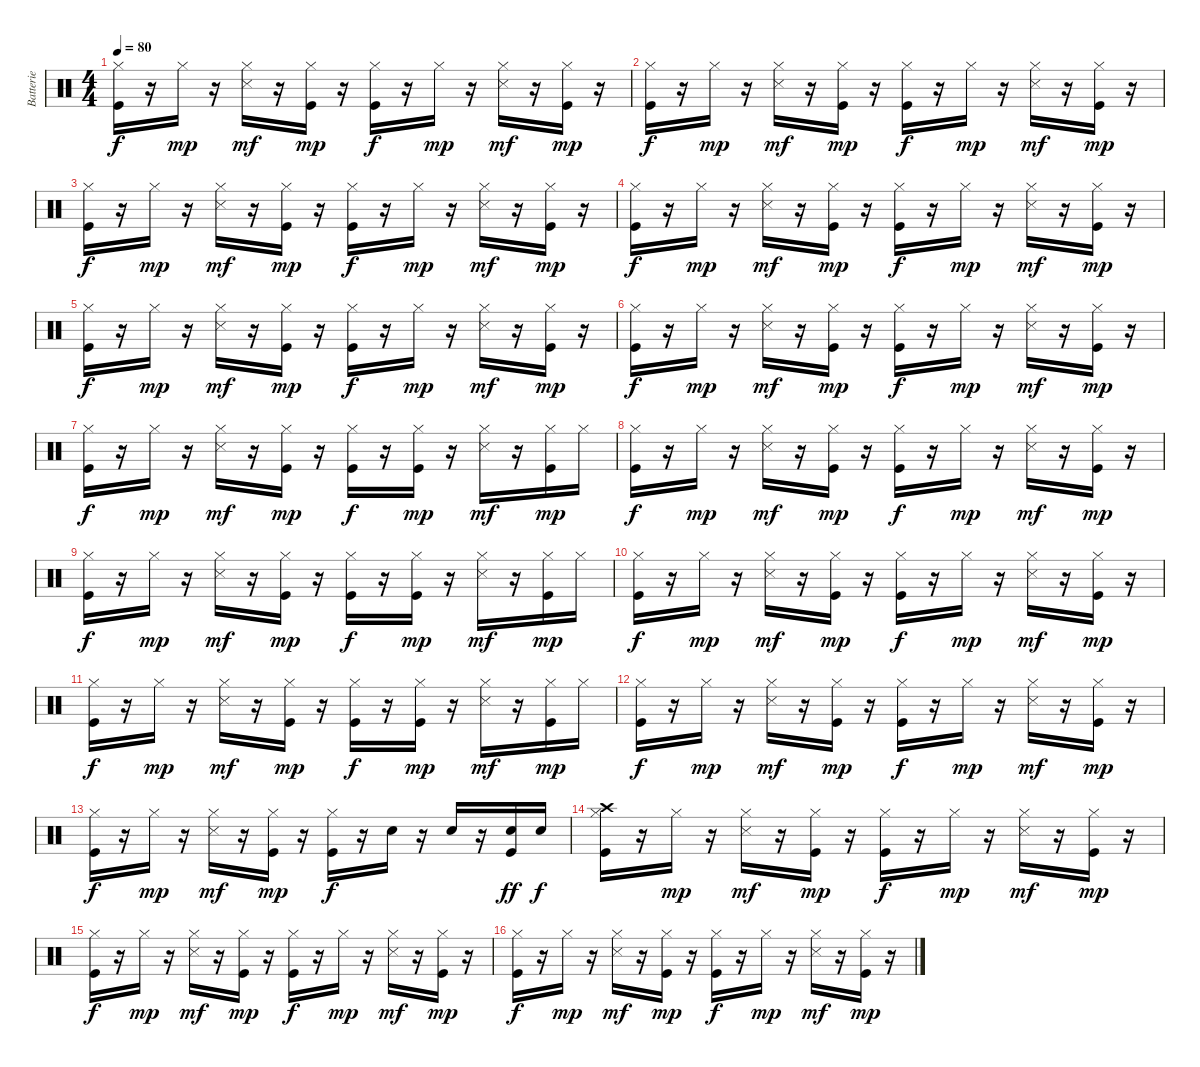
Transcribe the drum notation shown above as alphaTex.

\track ("Batterie" "Batterie") {instrument percussion}
\staff {score}
\articulation defaults
\ts (4 4)
\tempo 80
\clef neutral
\ks c
("Kick (hit)" "Hi-Hat (closed)").16{dy f} r.16 "Hi-Hat (closed)".16{dy mp} r.16 ("Hi-Hat (closed)" "Snare (side stick) 3").16{dy mf} r.16 ("Kick (hit)" "Hi-Hat (closed)").16{dy mp} r.16 ("Kick (hit)" "Hi-Hat (closed)").16{dy f} r.16 "Hi-Hat (closed)".16{dy mp} r.16 ("Hi-Hat (closed)" "Snare (side stick) 3").16{dy mf} r.16 ("Kick (hit)" "Hi-Hat (closed)").16{dy mp} r.16 |
("Kick (hit)" "Hi-Hat (closed)").16{dy f} r.16 "Hi-Hat (closed)".16{dy mp} r.16 ("Hi-Hat (closed)" "Snare (side stick) 3").16{dy mf} r.16 ("Kick (hit)" "Hi-Hat (closed)").16{dy mp} r.16 ("Kick (hit)" "Hi-Hat (closed)").16{dy f} r.16 "Hi-Hat (closed)".16{dy mp} r.16 ("Hi-Hat (closed)" "Snare (side stick) 3").16{dy mf} r.16 ("Kick (hit)" "Hi-Hat (closed)").16{dy mp} r.16 |
("Kick (hit)" "Hi-Hat (closed)").16{dy f} r.16 "Hi-Hat (closed)".16{dy mp} r.16 ("Hi-Hat (closed)" "Snare (side stick) 3").16{dy mf} r.16 ("Kick (hit)" "Hi-Hat (closed)").16{dy mp} r.16 ("Kick (hit)" "Hi-Hat (closed)").16{dy f} r.16 "Hi-Hat (closed)".16{dy mp} r.16 ("Hi-Hat (closed)" "Snare (side stick) 3").16{dy mf} r.16 ("Kick (hit)" "Hi-Hat (closed)").16{dy mp} r.16 |
("Kick (hit)" "Hi-Hat (closed)").16{dy f} r.16 "Hi-Hat (closed)".16{dy mp} r.16 ("Hi-Hat (closed)" "Snare (side stick) 3").16{dy mf} r.16 ("Kick (hit)" "Hi-Hat (closed)").16{dy mp} r.16 ("Kick (hit)" "Hi-Hat (closed)").16{dy f} r.16 "Hi-Hat (closed)".16{dy mp} r.16 ("Hi-Hat (closed)" "Snare (side stick) 3").16{dy mf} r.16 ("Kick (hit)" "Hi-Hat (closed)").16{dy mp} r.16 |
("Kick (hit)" "Hi-Hat (closed)").16{dy f} r.16 "Hi-Hat (closed)".16{dy mp} r.16 ("Hi-Hat (closed)" "Snare (side stick) 3").16{dy mf} r.16 ("Kick (hit)" "Hi-Hat (closed)").16{dy mp} r.16 ("Kick (hit)" "Hi-Hat (closed)").16{dy f} r.16 "Hi-Hat (closed)".16{dy mp} r.16 ("Hi-Hat (closed)" "Snare (side stick) 3").16{dy mf} r.16 ("Kick (hit)" "Hi-Hat (closed)").16{dy mp} r.16 |
("Kick (hit)" "Hi-Hat (closed)").16{dy f} r.16 "Hi-Hat (closed)".16{dy mp} r.16 ("Hi-Hat (closed)" "Snare (side stick) 3").16{dy mf} r.16 ("Kick (hit)" "Hi-Hat (closed)").16{dy mp} r.16 ("Kick (hit)" "Hi-Hat (closed)").16{dy f} r.16 "Hi-Hat (closed)".16{dy mp} r.16 ("Hi-Hat (closed)" "Snare (side stick) 3").16{dy mf} r.16 ("Kick (hit)" "Hi-Hat (closed)").16{dy mp} r.16 |
("Kick (hit)" "Hi-Hat (closed)").16{dy f} r.16 "Hi-Hat (closed)".16{dy mp} r.16 ("Hi-Hat (closed)" "Snare (side stick) 3").16{dy mf} r.16 ("Kick (hit)" "Hi-Hat (closed)").16{dy mp} r.16 ("Kick (hit)" "Hi-Hat (closed)").16{dy f} r.16 ("Kick (hit)" "Hi-Hat (closed)").16{dy mp} r.16 ("Hi-Hat (closed)" "Snare (side stick) 3").16{dy mf} r.16 ("Kick (hit)" "Hi-Hat (closed)").16{dy mp} "Hi-Hat (closed)".16 |
("Kick (hit)" "Hi-Hat (closed)").16{dy f} r.16 "Hi-Hat (closed)".16{dy mp} r.16 ("Hi-Hat (closed)" "Snare (side stick) 3").16{dy mf} r.16 ("Kick (hit)" "Hi-Hat (closed)").16{dy mp} r.16 ("Kick (hit)" "Hi-Hat (closed)").16{dy f} r.16 "Hi-Hat (closed)".16{dy mp} r.16 ("Hi-Hat (closed)" "Snare (side stick) 3").16{dy mf} r.16 ("Kick (hit)" "Hi-Hat (closed)").16{dy mp} r.16 |
("Kick (hit)" "Hi-Hat (closed)").16{dy f} r.16 "Hi-Hat (closed)".16{dy mp} r.16 ("Hi-Hat (closed)" "Snare (side stick) 3").16{dy mf} r.16 ("Kick (hit)" "Hi-Hat (closed)").16{dy mp} r.16 ("Kick (hit)" "Hi-Hat (closed)").16{dy f} r.16 ("Kick (hit)" "Hi-Hat (closed)").16{dy mp} r.16 ("Hi-Hat (closed)" "Snare (side stick) 3").16{dy mf} r.16 ("Kick (hit)" "Hi-Hat (closed)").16{dy mp} "Hi-Hat (closed)".16 |
("Kick (hit)" "Hi-Hat (closed)").16{dy f} r.16 "Hi-Hat (closed)".16{dy mp} r.16 ("Hi-Hat (closed)" "Snare (side stick) 3").16{dy mf} r.16 ("Kick (hit)" "Hi-Hat (closed)").16{dy mp} r.16 ("Kick (hit)" "Hi-Hat (closed)").16{dy f} r.16 "Hi-Hat (closed)".16{dy mp} r.16 ("Hi-Hat (closed)" "Snare (side stick) 3").16{dy mf} r.16 ("Kick (hit)" "Hi-Hat (closed)").16{dy mp} r.16 |
("Kick (hit)" "Hi-Hat (closed)").16{dy f} r.16 "Hi-Hat (closed)".16{dy mp} r.16 ("Hi-Hat (closed)" "Snare (side stick) 3").16{dy mf} r.16 ("Kick (hit)" "Hi-Hat (closed)").16{dy mp} r.16 ("Kick (hit)" "Hi-Hat (closed)").16{dy f} r.16 ("Kick (hit)" "Hi-Hat (closed)").16{dy mp} r.16 ("Hi-Hat (closed)" "Snare (side stick) 3").16{dy mf} r.16 ("Kick (hit)" "Hi-Hat (closed)").16{dy mp} "Hi-Hat (closed)".16 |
("Kick (hit)" "Hi-Hat (closed)").16{dy f} r.16 "Hi-Hat (closed)".16{dy mp} r.16 ("Hi-Hat (closed)" "Snare (side stick) 3").16{dy mf} r.16 ("Kick (hit)" "Hi-Hat (closed)").16{dy mp} r.16 ("Kick (hit)" "Hi-Hat (closed)").16{dy f} r.16 "Hi-Hat (closed)".16{dy mp} r.16 ("Hi-Hat (closed)" "Snare (side stick) 3").16{dy mf} r.16 ("Kick (hit)" "Hi-Hat (closed)").16{dy mp} r.16 |
("Kick (hit)" "Hi-Hat (closed)").16{dy f} r.16 "Hi-Hat (closed)".16{dy mp} r.16 ("Hi-Hat (closed)" "Snare (side stick) 3").16{dy mf} r.16 ("Kick (hit)" "Hi-Hat (closed)").16{dy mp} r.16 ("Kick (hit)" "Hi-Hat (closed)").16{dy f} r.16 "Snare (hit) 2".16 r.16 "Snare (hit) 2".16 r.16 ("Kick (hit)" "Snare (hit) 2").16{dy ff} "Snare (hit) 2".16{dy f} |
("Kick (hit)" "Hi-Hat (closed)" "Crash high (hit)").16 r.16 "Hi-Hat (closed)".16{dy mp} r.16 ("Hi-Hat (closed)" "Snare (side stick) 3").16{dy mf} r.16 ("Kick (hit)" "Hi-Hat (closed)").16{dy mp} r.16 ("Kick (hit)" "Hi-Hat (closed)").16{dy f} r.16 "Hi-Hat (closed)".16{dy mp} r.16 ("Hi-Hat (closed)" "Snare (side stick) 3").16{dy mf} r.16 ("Kick (hit)" "Hi-Hat (closed)").16{dy mp} r.16 |
("Kick (hit)" "Hi-Hat (closed)").16{dy f} r.16 "Hi-Hat (closed)".16{dy mp} r.16 ("Hi-Hat (closed)" "Snare (side stick) 3").16{dy mf} r.16 ("Kick (hit)" "Hi-Hat (closed)").16{dy mp} r.16 ("Kick (hit)" "Hi-Hat (closed)").16{dy f} r.16 "Hi-Hat (closed)".16{dy mp} r.16 ("Hi-Hat (closed)" "Snare (side stick) 3").16{dy mf} r.16 ("Kick (hit)" "Hi-Hat (closed)").16{dy mp} r.16 |
("Kick (hit)" "Hi-Hat (closed)").16{dy f} r.16 "Hi-Hat (closed)".16{dy mp} r.16 ("Hi-Hat (closed)" "Snare (side stick) 3").16{dy mf} r.16 ("Kick (hit)" "Hi-Hat (closed)").16{dy mp} r.16 ("Kick (hit)" "Hi-Hat (closed)").16{dy f} r.16 "Hi-Hat (closed)".16{dy mp} r.16 ("Hi-Hat (closed)" "Snare (side stick) 3").16{dy mf} r.16 ("Kick (hit)" "Hi-Hat (closed)").16{dy mp} r.16
